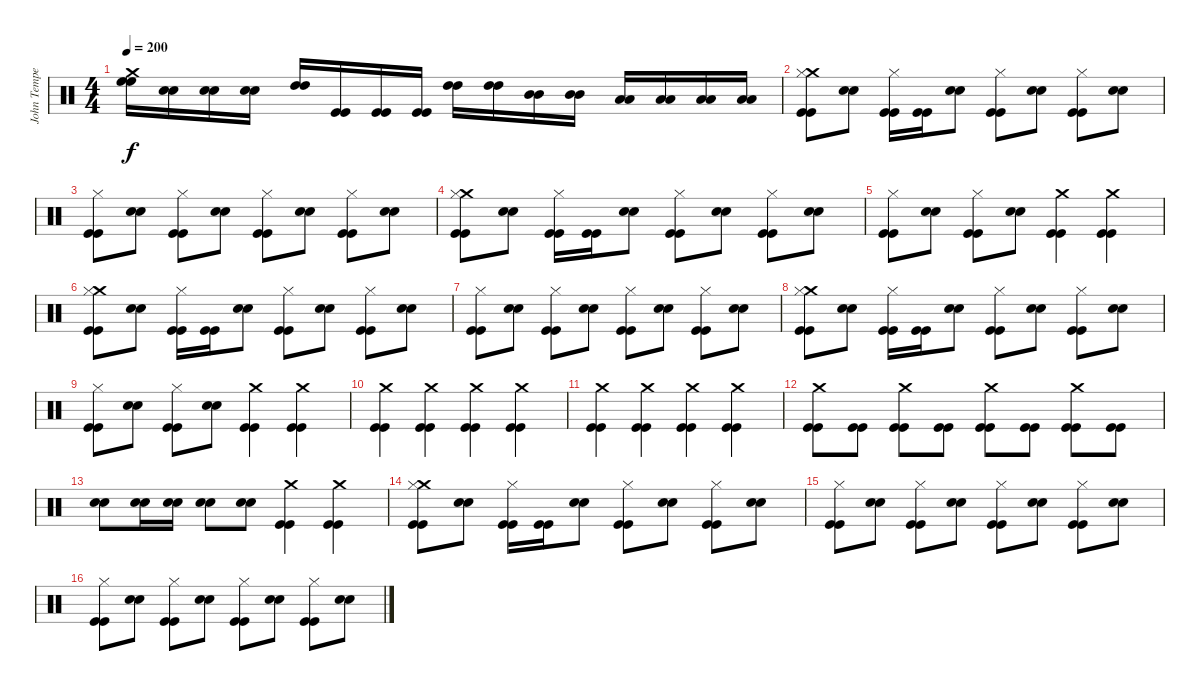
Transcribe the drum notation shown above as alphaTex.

\track ("John Tempesta" "John Tempe") {instrument percussion}
\staff {score}
\articulation defaults
\ts (4 4)
\tempo 200
\clef neutral
\ks c
("Crash medium (hit)" "High Floor Tom (hit)" "High Floor Tom (hit)").16{dy f} ("Snare (hit) 2" "Snare (hit) 2").16 ("Snare (hit) 2" "Snare (hit) 2").16 ("Snare (hit) 2" "Snare (hit) 2").16 ("High Tom (hit)" "High Tom (hit)").16 ("Kick (hit)" "Kick (hit)").16 ("Kick (hit)" "Kick (hit)").16 ("Kick (hit)" "Kick (hit)").16 ("High Tom (hit)" "High Tom (hit)").16 ("High Tom (hit)" "High Tom (hit)").16 ("Mid Tom (hit)" "Mid Tom (hit)").16 ("Mid Tom (hit)" "Mid Tom (hit)").16 ("Low Tom (hit)" "Low Tom (hit)").16 ("Low Tom (hit)" "Low Tom (hit)").16 ("Low Floor Tom (hit)" "Low Floor Tom (hit)").16 ("Low Floor Tom (hit)" "Low Floor Tom (hit)").16 |
("Crash medium (hit)" "Hi-Hat (closed)" "Kick (hit)" "Kick (hit)").8 ("Snare (hit) 2" "Snare (hit) 2").8 ("Hi-Hat (closed)" "Kick (hit)" "Kick (hit)").16 ("Kick (hit)" "Kick (hit)").16 ("Snare (hit) 2" "Snare (hit) 2").8 ("Hi-Hat (closed)" "Kick (hit)" "Kick (hit)").8 ("Snare (hit) 2" "Snare (hit) 2").8 ("Hi-Hat (closed)" "Kick (hit)" "Kick (hit)").8 ("Snare (hit) 2" "Snare (hit) 2").8 |
("Hi-Hat (closed)" "Kick (hit)" "Kick (hit)").8 ("Snare (hit) 2" "Snare (hit) 2").8 ("Hi-Hat (closed)" "Kick (hit)" "Kick (hit)").8 ("Snare (hit) 2" "Snare (hit) 2").8 ("Hi-Hat (closed)" "Kick (hit)" "Kick (hit)").8 ("Snare (hit) 2" "Snare (hit) 2").8 ("Hi-Hat (closed)" "Kick (hit)" "Kick (hit)").8 ("Snare (hit) 2" "Snare (hit) 2").8 |
("Crash medium (hit)" "Hi-Hat (closed)" "Kick (hit)" "Kick (hit)").8 ("Snare (hit) 2" "Snare (hit) 2").8 ("Hi-Hat (closed)" "Kick (hit)" "Kick (hit)").16 ("Kick (hit)" "Kick (hit)").16 ("Snare (hit) 2" "Snare (hit) 2").8 ("Hi-Hat (closed)" "Kick (hit)" "Kick (hit)").8 ("Snare (hit) 2" "Snare (hit) 2").8 ("Hi-Hat (closed)" "Kick (hit)" "Kick (hit)").8 ("Snare (hit) 2" "Snare (hit) 2").8 |
("Hi-Hat (closed)" "Kick (hit)" "Kick (hit)").8 ("Snare (hit) 2" "Snare (hit) 2").8 ("Hi-Hat (closed)" "Kick (hit)" "Kick (hit)").8 ("Snare (hit) 2" "Snare (hit) 2").8 ("Crash medium (hit)" "Kick (hit)" "Kick (hit)").4 ("Crash medium (hit)" "Kick (hit)" "Kick (hit)").4 |
("Crash medium (hit)" "Hi-Hat (closed)" "Kick (hit)" "Kick (hit)").8 ("Snare (hit) 2" "Snare (hit) 2").8 ("Hi-Hat (closed)" "Kick (hit)" "Kick (hit)").16 ("Kick (hit)" "Kick (hit)").16 ("Snare (hit) 2" "Snare (hit) 2").8 ("Hi-Hat (closed)" "Kick (hit)" "Kick (hit)").8 ("Snare (hit) 2" "Snare (hit) 2").8 ("Hi-Hat (closed)" "Kick (hit)" "Kick (hit)").8 ("Snare (hit) 2" "Snare (hit) 2").8 |
("Hi-Hat (closed)" "Kick (hit)" "Kick (hit)").8 ("Snare (hit) 2" "Snare (hit) 2").8 ("Hi-Hat (closed)" "Kick (hit)" "Kick (hit)").8 ("Snare (hit) 2" "Snare (hit) 2").8 ("Hi-Hat (closed)" "Kick (hit)" "Kick (hit)").8 ("Snare (hit) 2" "Snare (hit) 2").8 ("Hi-Hat (closed)" "Kick (hit)" "Kick (hit)").8 ("Snare (hit) 2" "Snare (hit) 2").8 |
("Crash medium (hit)" "Hi-Hat (closed)" "Kick (hit)" "Kick (hit)").8 ("Snare (hit) 2" "Snare (hit) 2").8 ("Hi-Hat (closed)" "Kick (hit)" "Kick (hit)").16 ("Kick (hit)" "Kick (hit)").16 ("Snare (hit) 2" "Snare (hit) 2").8 ("Hi-Hat (closed)" "Kick (hit)" "Kick (hit)").8 ("Snare (hit) 2" "Snare (hit) 2").8 ("Hi-Hat (closed)" "Kick (hit)" "Kick (hit)").8 ("Snare (hit) 2" "Snare (hit) 2").8 |
("Hi-Hat (closed)" "Kick (hit)" "Kick (hit)").8 ("Snare (hit) 2" "Snare (hit) 2").8 ("Hi-Hat (closed)" "Kick (hit)" "Kick (hit)").8 ("Snare (hit) 2" "Snare (hit) 2").8 ("Crash medium (hit)" "Kick (hit)" "Kick (hit)").4 ("Crash medium (hit)" "Kick (hit)" "Kick (hit)").4 |
("Crash medium (hit)" "Kick (hit)" "Kick (hit)").4 ("Crash medium (hit)" "Kick (hit)" "Kick (hit)").4 ("Crash medium (hit)" "Kick (hit)" "Kick (hit)").4 ("Crash medium (hit)" "Kick (hit)" "Kick (hit)").4 |
("Crash medium (hit)" "Kick (hit)" "Kick (hit)").4 ("Crash medium (hit)" "Kick (hit)" "Kick (hit)").4 ("Crash medium (hit)" "Kick (hit)" "Kick (hit)").4 ("Crash medium (hit)" "Kick (hit)" "Kick (hit)").4 |
("Crash medium (hit)" "Kick (hit)" "Kick (hit)").8 ("Kick (hit)" "Kick (hit)").8 ("Crash medium (hit)" "Kick (hit)" "Kick (hit)").8 ("Kick (hit)" "Kick (hit)").8 ("Crash medium (hit)" "Kick (hit)" "Kick (hit)").8 ("Kick (hit)" "Kick (hit)").8 ("Crash medium (hit)" "Kick (hit)" "Kick (hit)").8 ("Kick (hit)" "Kick (hit)").8 |
("Snare (hit) 2" "Snare (hit) 2").8 ("Snare (hit) 2" "Snare (hit) 2").16 ("Snare (hit) 2" "Snare (hit) 2").16 ("Snare (hit) 2" "Snare (hit) 2").8 ("Snare (hit) 2" "Snare (hit) 2").8 ("Crash medium (hit)" "Kick (hit)" "Kick (hit)").4 ("Crash medium (hit)" "Kick (hit)" "Kick (hit)").4 |
("Crash medium (hit)" "Hi-Hat (closed)" "Kick (hit)" "Kick (hit)").8 ("Snare (hit) 2" "Snare (hit) 2").8 ("Hi-Hat (closed)" "Kick (hit)" "Kick (hit)").16 ("Kick (hit)" "Kick (hit)").16 ("Snare (hit) 2" "Snare (hit) 2").8 ("Hi-Hat (closed)" "Kick (hit)" "Kick (hit)").8 ("Snare (hit) 2" "Snare (hit) 2").8 ("Hi-Hat (closed)" "Kick (hit)" "Kick (hit)").8 ("Snare (hit) 2" "Snare (hit) 2").8 |
("Hi-Hat (closed)" "Kick (hit)" "Kick (hit)").8 ("Snare (hit) 2" "Snare (hit) 2").8 ("Hi-Hat (closed)" "Kick (hit)" "Kick (hit)").8 ("Snare (hit) 2" "Snare (hit) 2").8 ("Hi-Hat (closed)" "Kick (hit)" "Kick (hit)").8 ("Snare (hit) 2" "Snare (hit) 2").8 ("Hi-Hat (closed)" "Kick (hit)" "Kick (hit)").8 ("Snare (hit) 2" "Snare (hit) 2").8 |
("Hi-Hat (closed)" "Kick (hit)" "Kick (hit)").8 ("Snare (hit) 2" "Snare (hit) 2").8 ("Hi-Hat (closed)" "Kick (hit)" "Kick (hit)").8 ("Snare (hit) 2" "Snare (hit) 2").8 ("Hi-Hat (closed)" "Kick (hit)" "Kick (hit)").8 ("Snare (hit) 2" "Snare (hit) 2").8 ("Hi-Hat (closed)" "Kick (hit)" "Kick (hit)").8 ("Snare (hit) 2" "Snare (hit) 2").8
